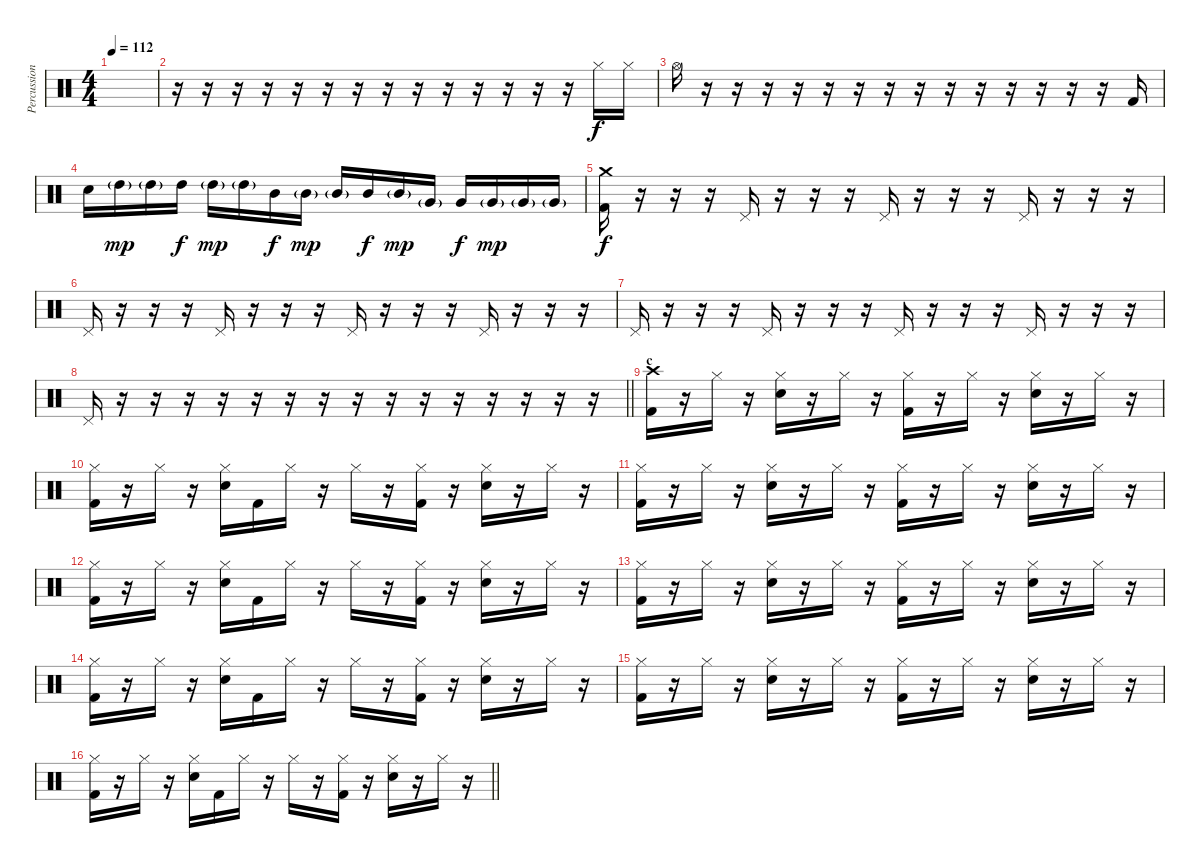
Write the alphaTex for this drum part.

\track ("Percussion" "Percussion") {instrument percussion}
\staff {score}
\articulation defaults
\ts (4 4)
\tempo 112
\clef neutral
\ks c
|
r.16 r.16 r.16 r.16 r.16 r.16 r.16 r.16 r.16 r.16 r.16 r.16 r.16 r.16 "Hi-Hat (closed)".16 "Hi-Hat (closed)".16 |
"Hi-Hat (open)".16 r.16 r.16 r.16 r.16 r.16 r.16 r.16 r.16 r.16 r.16 r.16 r.16 r.16 r.16 "Kick (hit) 2".16 |
"Snare (hit) 2".16 "High Tom (hit)"{g}.16{dy mp} "High Tom (hit)"{g}.16 "High Tom (hit)".16{dy f} "High Tom (hit)"{g}.16{dy mp} "High Tom (hit)"{g}.16 "Mid Tom (hit)".16{dy f} "Mid Tom (hit)"{g}.16{dy mp} "Mid Tom (hit)"{g}.16 "Mid Tom (hit)".16{dy f} "Mid Tom (hit)"{g}.16{dy mp} "Very Low Tom (hit)"{g}.16 "Very Low Tom (hit)".16{dy f} "Very Low Tom (hit)"{g}.16{dy mp} "Very Low Tom (hit)"{g}.16 "Very Low Tom (hit)"{g}.16 |
("Crash medium (hit)" "Kick (hit) 2").16{dy f} r.16 r.16 r.16 "Pedal Hi-Hat (hit)".16 r.16 r.16 r.16 "Pedal Hi-Hat (hit)".16 r.16 r.16 r.16 "Pedal Hi-Hat (hit)".16 r.16 r.16 r.16 |
"Pedal Hi-Hat (hit)".16 r.16 r.16 r.16 "Pedal Hi-Hat (hit)".16 r.16 r.16 r.16 "Pedal Hi-Hat (hit)".16 r.16 r.16 r.16 "Pedal Hi-Hat (hit)".16 r.16 r.16 r.16 |
"Pedal Hi-Hat (hit)".16 r.16 r.16 r.16 "Pedal Hi-Hat (hit)".16 r.16 r.16 r.16 "Pedal Hi-Hat (hit)".16 r.16 r.16 r.16 "Pedal Hi-Hat (hit)".16 r.16 r.16 r.16 |
\barLineRight lightlight "Pedal Hi-Hat (hit)".16
r.16 r.16 r.16 r.16 r.16 r.16 r.16 r.16 r.16 r.16 r.16 r.16 r.16 r.16 r.16 |
\section ("" "c")
("Crash high (hit)" "Kick (hit) 2").16 r.16 "Hi-Hat (closed)".16 r.16 ("Hi-Hat (closed)" "Snare (hit) 2").16 r.16 "Hi-Hat (closed)".16 r.16 ("Hi-Hat (closed)" "Kick (hit) 2").16 r.16 "Hi-Hat (closed)".16 r.16 ("Hi-Hat (closed)" "Snare (hit) 2").16 r.16 "Hi-Hat (closed)".16 r.16 |
("Hi-Hat (closed)" "Kick (hit) 2").16 r.16 "Hi-Hat (closed)".16 r.16 ("Hi-Hat (closed)" "Snare (hit) 2").16 "Kick (hit) 2".16 "Hi-Hat (closed)".16 r.16 "Hi-Hat (closed)".16 r.16 ("Hi-Hat (closed)" "Kick (hit) 2").16 r.16 ("Hi-Hat (closed)" "Snare (hit) 2").16 r.16 "Hi-Hat (closed)".16 r.16 |
("Hi-Hat (closed)" "Kick (hit) 2").16 r.16 "Hi-Hat (closed)".16 r.16 ("Hi-Hat (closed)" "Snare (hit) 2").16 r.16 "Hi-Hat (closed)".16 r.16 ("Hi-Hat (closed)" "Kick (hit) 2").16 r.16 "Hi-Hat (closed)".16 r.16 ("Hi-Hat (closed)" "Snare (hit) 2").16 r.16 "Hi-Hat (closed)".16 r.16 |
("Hi-Hat (closed)" "Kick (hit) 2").16 r.16 "Hi-Hat (closed)".16 r.16 ("Hi-Hat (closed)" "Snare (hit) 2").16 "Kick (hit) 2".16 "Hi-Hat (closed)".16 r.16 "Hi-Hat (closed)".16 r.16 ("Hi-Hat (closed)" "Kick (hit) 2").16 r.16 ("Hi-Hat (closed)" "Snare (hit) 2").16 r.16 "Hi-Hat (closed)".16 r.16 |
("Hi-Hat (closed)" "Kick (hit) 2").16 r.16 "Hi-Hat (closed)".16 r.16 ("Hi-Hat (closed)" "Snare (hit) 2").16 r.16 "Hi-Hat (closed)".16 r.16 ("Hi-Hat (closed)" "Kick (hit) 2").16 r.16 "Hi-Hat (closed)".16 r.16 ("Hi-Hat (closed)" "Snare (hit) 2").16 r.16 "Hi-Hat (closed)".16 r.16 |
("Hi-Hat (closed)" "Kick (hit) 2").16 r.16 "Hi-Hat (closed)".16 r.16 ("Hi-Hat (closed)" "Snare (hit) 2").16 "Kick (hit) 2".16 "Hi-Hat (closed)".16 r.16 "Hi-Hat (closed)".16 r.16 ("Hi-Hat (closed)" "Kick (hit) 2").16 r.16 ("Hi-Hat (closed)" "Snare (hit) 2").16 r.16 "Hi-Hat (closed)".16 r.16 |
("Hi-Hat (closed)" "Kick (hit) 2").16 r.16 "Hi-Hat (closed)".16 r.16 ("Hi-Hat (closed)" "Snare (hit) 2").16 r.16 "Hi-Hat (closed)".16 r.16 ("Hi-Hat (closed)" "Kick (hit) 2").16 r.16 "Hi-Hat (closed)".16 r.16 ("Hi-Hat (closed)" "Snare (hit) 2").16 r.16 "Hi-Hat (closed)".16 r.16 |
\barLineRight lightlight
("Hi-Hat (closed)" "Kick (hit) 2").16 r.16 "Hi-Hat (closed)".16 r.16 ("Hi-Hat (closed)" "Snare (hit) 2").16 "Kick (hit) 2".16 "Hi-Hat (closed)".16 r.16 "Hi-Hat (closed)".16 r.16 ("Hi-Hat (closed)" "Kick (hit) 2").16 r.16 ("Hi-Hat (closed)" "Snare (hit) 2").16 r.16 "Hi-Hat (closed)".16 r.16
